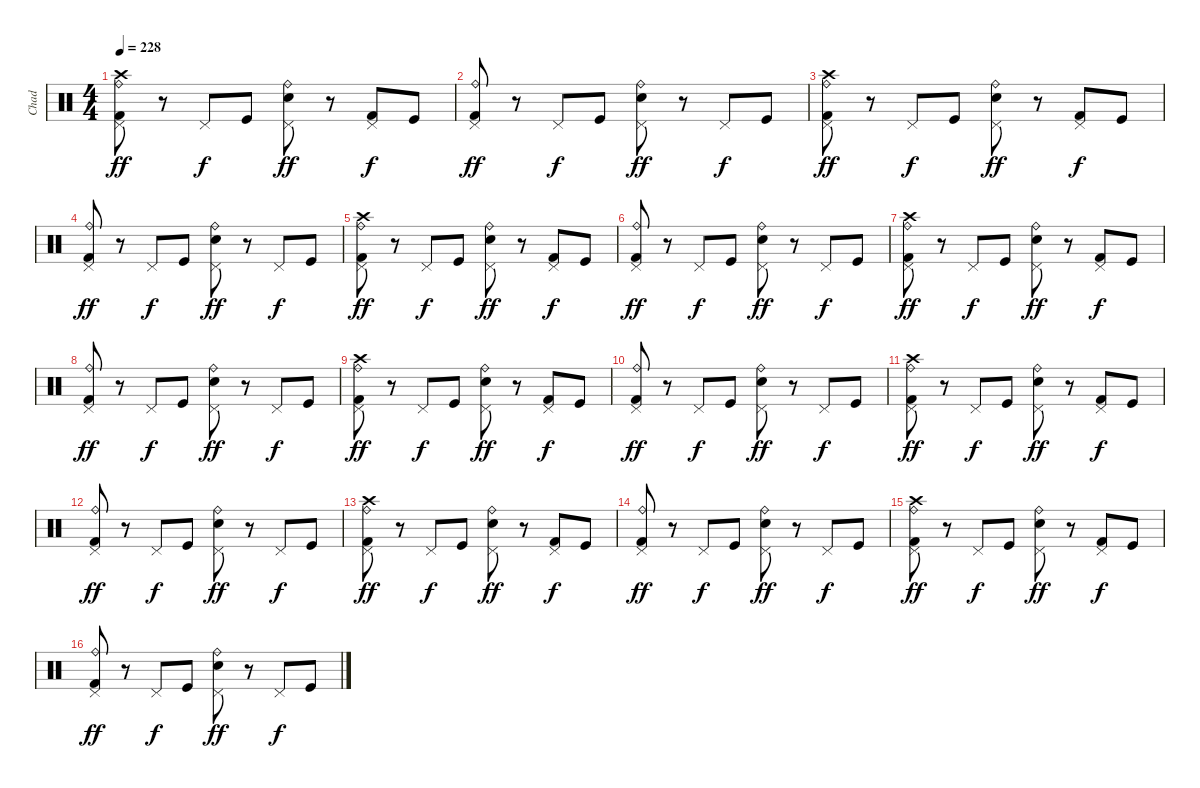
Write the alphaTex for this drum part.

\track ("Chad" "Chad") {instrument percussion}
\staff {score}
\articulation defaults
\ts (4 4)
\tempo 228
\clef neutral
\ks c
("Crash high (hit)" "Ride (bell)" "Kick (hit) 2" "Pedal Hi-Hat (hit)").8{dy ff} r.8 "Pedal Hi-Hat (hit)".8{dy f} "Kick (hit)".8 ("Ride (bell)" "Electric Snare (hit)" "Pedal Hi-Hat (hit)").8{dy ff} r.8 ("Kick (hit) 2" "Pedal Hi-Hat (hit)").8{dy f} "Kick (hit)".8 |
("Ride (bell)" "Kick (hit) 2" "Pedal Hi-Hat (hit)").8{dy ff} r.8 "Pedal Hi-Hat (hit)".8{dy f} "Kick (hit)".8 ("Ride (bell)" "Electric Snare (hit)" "Pedal Hi-Hat (hit)").8{dy ff} r.8 "Pedal Hi-Hat (hit)".8{dy f} "Kick (hit)".8 |
("Crash high (hit)" "Ride (bell)" "Kick (hit) 2" "Pedal Hi-Hat (hit)").8{dy ff} r.8 "Pedal Hi-Hat (hit)".8{dy f} "Kick (hit)".8 ("Ride (bell)" "Electric Snare (hit)" "Pedal Hi-Hat (hit)").8{dy ff} r.8 ("Kick (hit) 2" "Pedal Hi-Hat (hit)").8{dy f} "Kick (hit)".8 |
("Ride (bell)" "Kick (hit) 2" "Pedal Hi-Hat (hit)").8{dy ff} r.8 "Pedal Hi-Hat (hit)".8{dy f} "Kick (hit)".8 ("Ride (bell)" "Electric Snare (hit)" "Pedal Hi-Hat (hit)").8{dy ff} r.8 "Pedal Hi-Hat (hit)".8{dy f} "Kick (hit)".8 |
("Crash high (hit)" "Ride (bell)" "Kick (hit) 2" "Pedal Hi-Hat (hit)").8{dy ff} r.8 "Pedal Hi-Hat (hit)".8{dy f} "Kick (hit)".8 ("Ride (bell)" "Electric Snare (hit)" "Pedal Hi-Hat (hit)").8{dy ff} r.8 ("Kick (hit) 2" "Pedal Hi-Hat (hit)").8{dy f} "Kick (hit)".8 |
("Ride (bell)" "Kick (hit) 2" "Pedal Hi-Hat (hit)").8{dy ff} r.8 "Pedal Hi-Hat (hit)".8{dy f} "Kick (hit)".8 ("Ride (bell)" "Electric Snare (hit)" "Pedal Hi-Hat (hit)").8{dy ff} r.8 "Pedal Hi-Hat (hit)".8{dy f} "Kick (hit)".8 |
("Crash high (hit)" "Ride (bell)" "Kick (hit) 2" "Pedal Hi-Hat (hit)").8{dy ff} r.8 "Pedal Hi-Hat (hit)".8{dy f} "Kick (hit)".8 ("Ride (bell)" "Electric Snare (hit)" "Pedal Hi-Hat (hit)").8{dy ff} r.8 ("Kick (hit) 2" "Pedal Hi-Hat (hit)").8{dy f} "Kick (hit)".8 |
("Ride (bell)" "Kick (hit) 2" "Pedal Hi-Hat (hit)").8{dy ff} r.8 "Pedal Hi-Hat (hit)".8{dy f} "Kick (hit)".8 ("Ride (bell)" "Electric Snare (hit)" "Pedal Hi-Hat (hit)").8{dy ff} r.8 "Pedal Hi-Hat (hit)".8{dy f} "Kick (hit)".8 |
("Crash high (hit)" "Ride (bell)" "Kick (hit) 2" "Pedal Hi-Hat (hit)").8{dy ff} r.8 "Pedal Hi-Hat (hit)".8{dy f} "Kick (hit)".8 ("Ride (bell)" "Electric Snare (hit)" "Pedal Hi-Hat (hit)").8{dy ff} r.8 ("Kick (hit) 2" "Pedal Hi-Hat (hit)").8{dy f} "Kick (hit)".8 |
("Ride (bell)" "Kick (hit) 2" "Pedal Hi-Hat (hit)").8{dy ff} r.8 "Pedal Hi-Hat (hit)".8{dy f} "Kick (hit)".8 ("Ride (bell)" "Electric Snare (hit)" "Pedal Hi-Hat (hit)").8{dy ff} r.8 "Pedal Hi-Hat (hit)".8{dy f} "Kick (hit)".8 |
("Crash high (hit)" "Ride (bell)" "Kick (hit) 2" "Pedal Hi-Hat (hit)").8{dy ff} r.8 "Pedal Hi-Hat (hit)".8{dy f} "Kick (hit)".8 ("Ride (bell)" "Electric Snare (hit)" "Pedal Hi-Hat (hit)").8{dy ff} r.8 ("Kick (hit) 2" "Pedal Hi-Hat (hit)").8{dy f} "Kick (hit)".8 |
("Ride (bell)" "Kick (hit) 2" "Pedal Hi-Hat (hit)").8{dy ff} r.8 "Pedal Hi-Hat (hit)".8{dy f} "Kick (hit)".8 ("Ride (bell)" "Electric Snare (hit)" "Pedal Hi-Hat (hit)").8{dy ff} r.8 "Pedal Hi-Hat (hit)".8{dy f} "Kick (hit)".8 |
("Crash high (hit)" "Ride (bell)" "Kick (hit) 2" "Pedal Hi-Hat (hit)").8{dy ff} r.8 "Pedal Hi-Hat (hit)".8{dy f} "Kick (hit)".8 ("Ride (bell)" "Electric Snare (hit)" "Pedal Hi-Hat (hit)").8{dy ff} r.8 ("Kick (hit) 2" "Pedal Hi-Hat (hit)").8{dy f} "Kick (hit)".8 |
("Ride (bell)" "Kick (hit) 2" "Pedal Hi-Hat (hit)").8{dy ff} r.8 "Pedal Hi-Hat (hit)".8{dy f} "Kick (hit)".8 ("Ride (bell)" "Electric Snare (hit)" "Pedal Hi-Hat (hit)").8{dy ff} r.8 "Pedal Hi-Hat (hit)".8{dy f} "Kick (hit)".8 |
("Crash high (hit)" "Ride (bell)" "Kick (hit) 2" "Pedal Hi-Hat (hit)").8{dy ff} r.8 "Pedal Hi-Hat (hit)".8{dy f} "Kick (hit)".8 ("Ride (bell)" "Electric Snare (hit)" "Pedal Hi-Hat (hit)").8{dy ff} r.8 ("Kick (hit) 2" "Pedal Hi-Hat (hit)").8{dy f} "Kick (hit)".8 |
("Ride (bell)" "Kick (hit) 2" "Pedal Hi-Hat (hit)").8{dy ff} r.8 "Pedal Hi-Hat (hit)".8{dy f} "Kick (hit)".8 ("Ride (bell)" "Electric Snare (hit)" "Pedal Hi-Hat (hit)").8{dy ff} r.8 "Pedal Hi-Hat (hit)".8{dy f} "Kick (hit)".8
